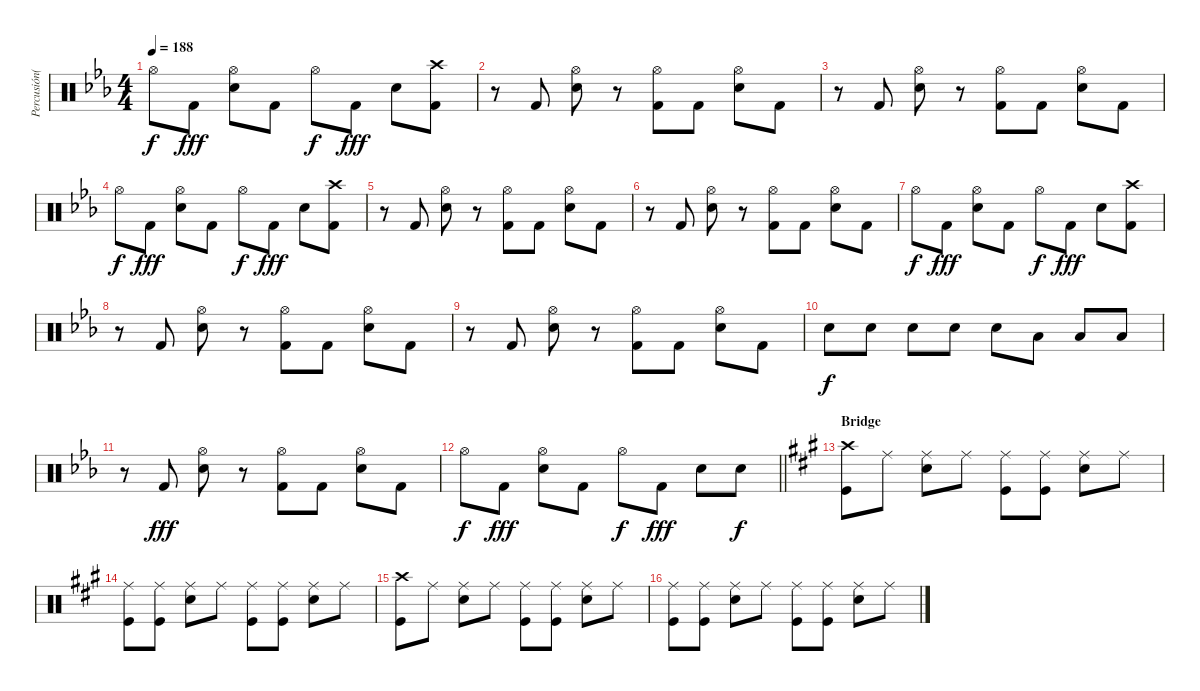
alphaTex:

\track ("Percusión(S.Drover)" "Percusión(") {instrument percussion}
\staff {score}
\articulation defaults
\ts (4 4)
\tempo 188
\clef neutral
\ks eb "Hi-Hat (open)".8{dy f} "Kick (hit) 2".8{dy fff}
("Hi-Hat (open)" "Snare (hit) 2").8 "Kick (hit) 2".8 "Hi-Hat (open)".8{dy f} "Kick (hit) 2".8{dy fff} "Snare (hit) 2".8 ("Crash high (hit)" "Kick (hit) 2").8 |
r.8 "Kick (hit) 2".8 ("Hi-Hat (open)" "Snare (hit) 2").8 r.8 ("Hi-Hat (open)" "Kick (hit) 2").8 "Kick (hit) 2".8 ("Hi-Hat (open)" "Snare (hit) 2").8 "Kick (hit) 2".8 |
r.8 "Kick (hit) 2".8 ("Hi-Hat (open)" "Snare (hit) 2").8 r.8 ("Hi-Hat (open)" "Kick (hit) 2").8 "Kick (hit) 2".8 ("Hi-Hat (open)" "Snare (hit) 2").8 "Kick (hit) 2".8 |
"Hi-Hat (open)".8{dy f} "Kick (hit) 2".8{dy fff} ("Hi-Hat (open)" "Snare (hit) 2").8 "Kick (hit) 2".8 "Hi-Hat (open)".8{dy f} "Kick (hit) 2".8{dy fff} "Snare (hit) 2".8 ("Crash high (hit)" "Kick (hit) 2").8 |
r.8 "Kick (hit) 2".8 ("Hi-Hat (open)" "Snare (hit) 2").8 r.8 ("Hi-Hat (open)" "Kick (hit) 2").8 "Kick (hit) 2".8 ("Hi-Hat (open)" "Snare (hit) 2").8 "Kick (hit) 2".8 |
r.8 "Kick (hit) 2".8 ("Hi-Hat (open)" "Snare (hit) 2").8 r.8 ("Hi-Hat (open)" "Kick (hit) 2").8 "Kick (hit) 2".8 ("Hi-Hat (open)" "Snare (hit) 2").8 "Kick (hit) 2".8 |
"Hi-Hat (open)".8{dy f} "Kick (hit) 2".8{dy fff} ("Hi-Hat (open)" "Snare (hit) 2").8 "Kick (hit) 2".8 "Hi-Hat (open)".8{dy f} "Kick (hit) 2".8{dy fff} "Snare (hit) 2".8 ("Crash high (hit)" "Kick (hit) 2").8 |
r.8 "Kick (hit) 2".8 ("Hi-Hat (open)" "Snare (hit) 2").8 r.8 ("Hi-Hat (open)" "Kick (hit) 2").8 "Kick (hit) 2".8 ("Hi-Hat (open)" "Snare (hit) 2").8 "Kick (hit) 2".8 |
r.8 "Kick (hit) 2".8 ("Hi-Hat (open)" "Snare (hit) 2").8 r.8 ("Hi-Hat (open)" "Kick (hit) 2").8 "Kick (hit) 2".8 ("Hi-Hat (open)" "Snare (hit) 2").8 "Kick (hit) 2".8 |
"Snare (hit) 2".8{dy f} "Snare (hit) 2".8 "Snare (hit) 2".8 "Snare (hit) 2".8 "Snare (hit) 2".8 "Low Tom (hit)".8 "Low Tom (hit)".8 "Low Tom (hit)".8 |
r.8 "Kick (hit) 2".8{dy fff} ("Hi-Hat (open)" "Snare (hit) 2").8 r.8 ("Hi-Hat (open)" "Kick (hit) 2").8 "Kick (hit) 2".8 ("Hi-Hat (open)" "Snare (hit) 2").8 "Kick (hit) 2".8 |
\barLineRight lightlight "Hi-Hat (open)".8{dy f} "Kick (hit) 2".8{dy fff}
("Hi-Hat (open)" "Snare (hit) 2").8 "Kick (hit) 2".8 "Hi-Hat (open)".8{dy f} "Kick (hit) 2".8{dy fff} "Snare (hit) 2".8 "Snare (hit) 2".8{dy f} |
\section ("" "Bridge")
\ks a
("Crash high (hit)" "Kick (hit)").8 "Ride (middle)".8 ("Ride (middle)" "Snare (hit) 2").8 "Ride (middle)".8 ("Ride (middle)" "Kick (hit)").8 ("Ride (middle)" "Kick (hit)").8 ("Ride (middle)" "Snare (hit) 2").8 "Ride (middle)".8 |
("Ride (middle)" "Kick (hit)").8 ("Ride (middle)" "Kick (hit)").8 ("Ride (middle)" "Snare (hit) 2").8 "Ride (middle)".8 ("Ride (middle)" "Kick (hit)").8 ("Ride (middle)" "Kick (hit)").8 ("Ride (middle)" "Snare (hit) 2").8 "Ride (middle)".8 |
("Crash high (hit)" "Kick (hit)").8 "Ride (middle)".8 ("Ride (middle)" "Snare (hit) 2").8 "Ride (middle)".8 ("Ride (middle)" "Kick (hit)").8 ("Ride (middle)" "Kick (hit)").8 ("Ride (middle)" "Snare (hit) 2").8 "Ride (middle)".8 |
("Ride (middle)" "Kick (hit)").8 ("Ride (middle)" "Kick (hit)").8 ("Ride (middle)" "Snare (hit) 2").8 "Ride (middle)".8 ("Ride (middle)" "Kick (hit)").8 ("Ride (middle)" "Kick (hit)").8 ("Ride (middle)" "Snare (hit) 2").8 "Ride (middle)".8
